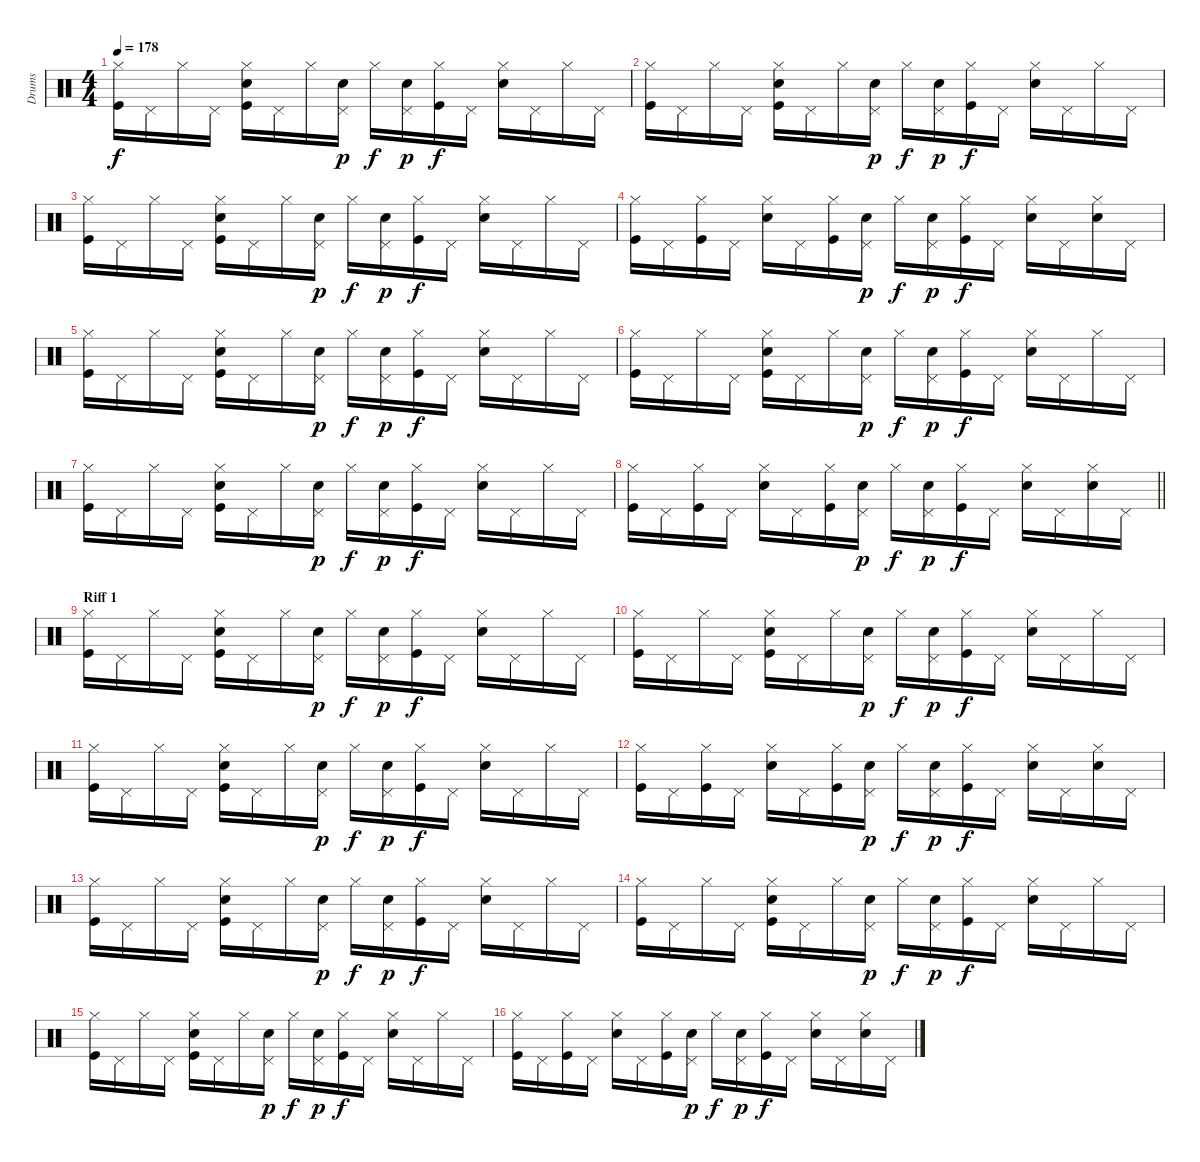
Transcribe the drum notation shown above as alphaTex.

\track ("Drums" "Drums") {instrument percussion}
\staff {score}
\articulation defaults
\ts (4 4)
\tempo 178
\clef neutral
\ks c
("Kick (hit)" "Hi-Hat (closed)").16{dy f} "Pedal Hi-Hat (hit)".16 "Hi-Hat (closed)".16 "Pedal Hi-Hat (hit)".16 ("Kick (hit)" "Electric Snare (hit)" "Hi-Hat (closed)").16 "Pedal Hi-Hat (hit)".16 "Hi-Hat (closed)".16 ("Electric Snare (hit)" "Pedal Hi-Hat (hit)").16{dy p} "Hi-Hat (closed)".16{dy f} ("Electric Snare (hit)" "Pedal Hi-Hat (hit)").16{dy p} ("Kick (hit)" "Hi-Hat (closed)").16{dy f} "Pedal Hi-Hat (hit)".16 ("Electric Snare (hit)" "Hi-Hat (closed)").16 "Pedal Hi-Hat (hit)".16 "Hi-Hat (closed)".16 "Pedal Hi-Hat (hit)".16 |
("Kick (hit)" "Hi-Hat (closed)").16 "Pedal Hi-Hat (hit)".16 "Hi-Hat (closed)".16 "Pedal Hi-Hat (hit)".16 ("Kick (hit)" "Electric Snare (hit)" "Hi-Hat (closed)").16 "Pedal Hi-Hat (hit)".16 "Hi-Hat (closed)".16 ("Electric Snare (hit)" "Pedal Hi-Hat (hit)").16{dy p} "Hi-Hat (closed)".16{dy f} ("Electric Snare (hit)" "Pedal Hi-Hat (hit)").16{dy p} ("Kick (hit)" "Hi-Hat (closed)").16{dy f} "Pedal Hi-Hat (hit)".16 ("Electric Snare (hit)" "Hi-Hat (closed)").16 "Pedal Hi-Hat (hit)".16 "Hi-Hat (closed)".16 "Pedal Hi-Hat (hit)".16 |
("Kick (hit)" "Hi-Hat (closed)").16 "Pedal Hi-Hat (hit)".16 "Hi-Hat (closed)".16 "Pedal Hi-Hat (hit)".16 ("Kick (hit)" "Electric Snare (hit)" "Hi-Hat (closed)").16 "Pedal Hi-Hat (hit)".16 "Hi-Hat (closed)".16 ("Electric Snare (hit)" "Pedal Hi-Hat (hit)").16{dy p} "Hi-Hat (closed)".16{dy f} ("Electric Snare (hit)" "Pedal Hi-Hat (hit)").16{dy p} ("Kick (hit)" "Hi-Hat (closed)").16{dy f} "Pedal Hi-Hat (hit)".16 ("Electric Snare (hit)" "Hi-Hat (closed)").16 "Pedal Hi-Hat (hit)".16 "Hi-Hat (closed)".16 "Pedal Hi-Hat (hit)".16 |
("Kick (hit)" "Hi-Hat (closed)").16 "Pedal Hi-Hat (hit)".16 ("Kick (hit)" "Hi-Hat (closed)").16 "Pedal Hi-Hat (hit)".16 ("Electric Snare (hit)" "Hi-Hat (closed)").16 "Pedal Hi-Hat (hit)".16 ("Kick (hit)" "Hi-Hat (closed)").16 ("Electric Snare (hit)" "Pedal Hi-Hat (hit)").16{dy p} "Hi-Hat (closed)".16{dy f} ("Electric Snare (hit)" "Pedal Hi-Hat (hit)").16{dy p} ("Kick (hit)" "Hi-Hat (closed)").16{dy f} "Pedal Hi-Hat (hit)".16 ("Electric Snare (hit)" "Hi-Hat (closed)").16 "Pedal Hi-Hat (hit)".16 ("Electric Snare (hit)" "Hi-Hat (closed)").16 "Pedal Hi-Hat (hit)".16 |
("Kick (hit)" "Hi-Hat (closed)").16 "Pedal Hi-Hat (hit)".16 "Hi-Hat (closed)".16 "Pedal Hi-Hat (hit)".16 ("Kick (hit)" "Electric Snare (hit)" "Hi-Hat (closed)").16 "Pedal Hi-Hat (hit)".16 "Hi-Hat (closed)".16 ("Electric Snare (hit)" "Pedal Hi-Hat (hit)").16{dy p} "Hi-Hat (closed)".16{dy f} ("Electric Snare (hit)" "Pedal Hi-Hat (hit)").16{dy p} ("Kick (hit)" "Hi-Hat (closed)").16{dy f} "Pedal Hi-Hat (hit)".16 ("Electric Snare (hit)" "Hi-Hat (closed)").16 "Pedal Hi-Hat (hit)".16 "Hi-Hat (closed)".16 "Pedal Hi-Hat (hit)".16 |
("Kick (hit)" "Hi-Hat (closed)").16 "Pedal Hi-Hat (hit)".16 "Hi-Hat (closed)".16 "Pedal Hi-Hat (hit)".16 ("Kick (hit)" "Electric Snare (hit)" "Hi-Hat (closed)").16 "Pedal Hi-Hat (hit)".16 "Hi-Hat (closed)".16 ("Electric Snare (hit)" "Pedal Hi-Hat (hit)").16{dy p} "Hi-Hat (closed)".16{dy f} ("Electric Snare (hit)" "Pedal Hi-Hat (hit)").16{dy p} ("Kick (hit)" "Hi-Hat (closed)").16{dy f} "Pedal Hi-Hat (hit)".16 ("Electric Snare (hit)" "Hi-Hat (closed)").16 "Pedal Hi-Hat (hit)".16 "Hi-Hat (closed)".16 "Pedal Hi-Hat (hit)".16 |
("Kick (hit)" "Hi-Hat (closed)").16 "Pedal Hi-Hat (hit)".16 "Hi-Hat (closed)".16 "Pedal Hi-Hat (hit)".16 ("Kick (hit)" "Electric Snare (hit)" "Hi-Hat (closed)").16 "Pedal Hi-Hat (hit)".16 "Hi-Hat (closed)".16 ("Electric Snare (hit)" "Pedal Hi-Hat (hit)").16{dy p} "Hi-Hat (closed)".16{dy f} ("Electric Snare (hit)" "Pedal Hi-Hat (hit)").16{dy p} ("Kick (hit)" "Hi-Hat (closed)").16{dy f} "Pedal Hi-Hat (hit)".16 ("Electric Snare (hit)" "Hi-Hat (closed)").16 "Pedal Hi-Hat (hit)".16 "Hi-Hat (closed)".16 "Pedal Hi-Hat (hit)".16 |
\barLineRight lightlight
("Kick (hit)" "Hi-Hat (closed)").16 "Pedal Hi-Hat (hit)".16 ("Kick (hit)" "Hi-Hat (closed)").16 "Pedal Hi-Hat (hit)".16 ("Electric Snare (hit)" "Hi-Hat (closed)").16 "Pedal Hi-Hat (hit)".16 ("Kick (hit)" "Hi-Hat (closed)").16 ("Electric Snare (hit)" "Pedal Hi-Hat (hit)").16{dy p} "Hi-Hat (closed)".16{dy f} ("Electric Snare (hit)" "Pedal Hi-Hat (hit)").16{dy p} ("Kick (hit)" "Hi-Hat (closed)").16{dy f} "Pedal Hi-Hat (hit)".16 ("Electric Snare (hit)" "Hi-Hat (closed)").16 "Pedal Hi-Hat (hit)".16 ("Electric Snare (hit)" "Hi-Hat (closed)").16 "Pedal Hi-Hat (hit)".16 |
\section ("" "Riff 1")
("Kick (hit)" "Hi-Hat (closed)").16 "Pedal Hi-Hat (hit)".16 "Hi-Hat (closed)".16 "Pedal Hi-Hat (hit)".16 ("Kick (hit)" "Electric Snare (hit)" "Hi-Hat (closed)").16 "Pedal Hi-Hat (hit)".16 "Hi-Hat (closed)".16 ("Electric Snare (hit)" "Pedal Hi-Hat (hit)").16{dy p} "Hi-Hat (closed)".16{dy f} ("Electric Snare (hit)" "Pedal Hi-Hat (hit)").16{dy p} ("Kick (hit)" "Hi-Hat (closed)").16{dy f} "Pedal Hi-Hat (hit)".16 ("Electric Snare (hit)" "Hi-Hat (closed)").16 "Pedal Hi-Hat (hit)".16 "Hi-Hat (closed)".16 "Pedal Hi-Hat (hit)".16 |
("Kick (hit)" "Hi-Hat (closed)").16 "Pedal Hi-Hat (hit)".16 "Hi-Hat (closed)".16 "Pedal Hi-Hat (hit)".16 ("Kick (hit)" "Electric Snare (hit)" "Hi-Hat (closed)").16 "Pedal Hi-Hat (hit)".16 "Hi-Hat (closed)".16 ("Electric Snare (hit)" "Pedal Hi-Hat (hit)").16{dy p} "Hi-Hat (closed)".16{dy f} ("Electric Snare (hit)" "Pedal Hi-Hat (hit)").16{dy p} ("Kick (hit)" "Hi-Hat (closed)").16{dy f} "Pedal Hi-Hat (hit)".16 ("Electric Snare (hit)" "Hi-Hat (closed)").16 "Pedal Hi-Hat (hit)".16 "Hi-Hat (closed)".16 "Pedal Hi-Hat (hit)".16 |
("Kick (hit)" "Hi-Hat (closed)").16 "Pedal Hi-Hat (hit)".16 "Hi-Hat (closed)".16 "Pedal Hi-Hat (hit)".16 ("Kick (hit)" "Electric Snare (hit)" "Hi-Hat (closed)").16 "Pedal Hi-Hat (hit)".16 "Hi-Hat (closed)".16 ("Electric Snare (hit)" "Pedal Hi-Hat (hit)").16{dy p} "Hi-Hat (closed)".16{dy f} ("Electric Snare (hit)" "Pedal Hi-Hat (hit)").16{dy p} ("Kick (hit)" "Hi-Hat (closed)").16{dy f} "Pedal Hi-Hat (hit)".16 ("Electric Snare (hit)" "Hi-Hat (closed)").16 "Pedal Hi-Hat (hit)".16 "Hi-Hat (closed)".16 "Pedal Hi-Hat (hit)".16 |
("Kick (hit)" "Hi-Hat (closed)").16 "Pedal Hi-Hat (hit)".16 ("Kick (hit)" "Hi-Hat (closed)").16 "Pedal Hi-Hat (hit)".16 ("Electric Snare (hit)" "Hi-Hat (closed)").16 "Pedal Hi-Hat (hit)".16 ("Kick (hit)" "Hi-Hat (closed)").16 ("Electric Snare (hit)" "Pedal Hi-Hat (hit)").16{dy p} "Hi-Hat (closed)".16{dy f} ("Electric Snare (hit)" "Pedal Hi-Hat (hit)").16{dy p} ("Kick (hit)" "Hi-Hat (closed)").16{dy f} "Pedal Hi-Hat (hit)".16 ("Electric Snare (hit)" "Hi-Hat (closed)").16 "Pedal Hi-Hat (hit)".16 ("Electric Snare (hit)" "Hi-Hat (closed)").16 "Pedal Hi-Hat (hit)".16 |
("Kick (hit)" "Hi-Hat (closed)").16 "Pedal Hi-Hat (hit)".16 "Hi-Hat (closed)".16 "Pedal Hi-Hat (hit)".16 ("Kick (hit)" "Electric Snare (hit)" "Hi-Hat (closed)").16 "Pedal Hi-Hat (hit)".16 "Hi-Hat (closed)".16 ("Electric Snare (hit)" "Pedal Hi-Hat (hit)").16{dy p} "Hi-Hat (closed)".16{dy f} ("Electric Snare (hit)" "Pedal Hi-Hat (hit)").16{dy p} ("Kick (hit)" "Hi-Hat (closed)").16{dy f} "Pedal Hi-Hat (hit)".16 ("Electric Snare (hit)" "Hi-Hat (closed)").16 "Pedal Hi-Hat (hit)".16 "Hi-Hat (closed)".16 "Pedal Hi-Hat (hit)".16 |
("Kick (hit)" "Hi-Hat (closed)").16 "Pedal Hi-Hat (hit)".16 "Hi-Hat (closed)".16 "Pedal Hi-Hat (hit)".16 ("Kick (hit)" "Electric Snare (hit)" "Hi-Hat (closed)").16 "Pedal Hi-Hat (hit)".16 "Hi-Hat (closed)".16 ("Electric Snare (hit)" "Pedal Hi-Hat (hit)").16{dy p} "Hi-Hat (closed)".16{dy f} ("Electric Snare (hit)" "Pedal Hi-Hat (hit)").16{dy p} ("Kick (hit)" "Hi-Hat (closed)").16{dy f} "Pedal Hi-Hat (hit)".16 ("Electric Snare (hit)" "Hi-Hat (closed)").16 "Pedal Hi-Hat (hit)".16 "Hi-Hat (closed)".16 "Pedal Hi-Hat (hit)".16 |
("Kick (hit)" "Hi-Hat (closed)").16 "Pedal Hi-Hat (hit)".16 "Hi-Hat (closed)".16 "Pedal Hi-Hat (hit)".16 ("Kick (hit)" "Electric Snare (hit)" "Hi-Hat (closed)").16 "Pedal Hi-Hat (hit)".16 "Hi-Hat (closed)".16 ("Electric Snare (hit)" "Pedal Hi-Hat (hit)").16{dy p} "Hi-Hat (closed)".16{dy f} ("Electric Snare (hit)" "Pedal Hi-Hat (hit)").16{dy p} ("Kick (hit)" "Hi-Hat (closed)").16{dy f} "Pedal Hi-Hat (hit)".16 ("Electric Snare (hit)" "Hi-Hat (closed)").16 "Pedal Hi-Hat (hit)".16 "Hi-Hat (closed)".16 "Pedal Hi-Hat (hit)".16 |
("Kick (hit)" "Hi-Hat (closed)").16 "Pedal Hi-Hat (hit)".16 ("Kick (hit)" "Hi-Hat (closed)").16 "Pedal Hi-Hat (hit)".16 ("Electric Snare (hit)" "Hi-Hat (closed)").16 "Pedal Hi-Hat (hit)".16 ("Kick (hit)" "Hi-Hat (closed)").16 ("Electric Snare (hit)" "Pedal Hi-Hat (hit)").16{dy p} "Hi-Hat (closed)".16{dy f} ("Electric Snare (hit)" "Pedal Hi-Hat (hit)").16{dy p} ("Kick (hit)" "Hi-Hat (closed)").16{dy f} "Pedal Hi-Hat (hit)".16 ("Electric Snare (hit)" "Hi-Hat (closed)").16 "Pedal Hi-Hat (hit)".16 ("Electric Snare (hit)" "Hi-Hat (closed)").16 "Pedal Hi-Hat (hit)".16
